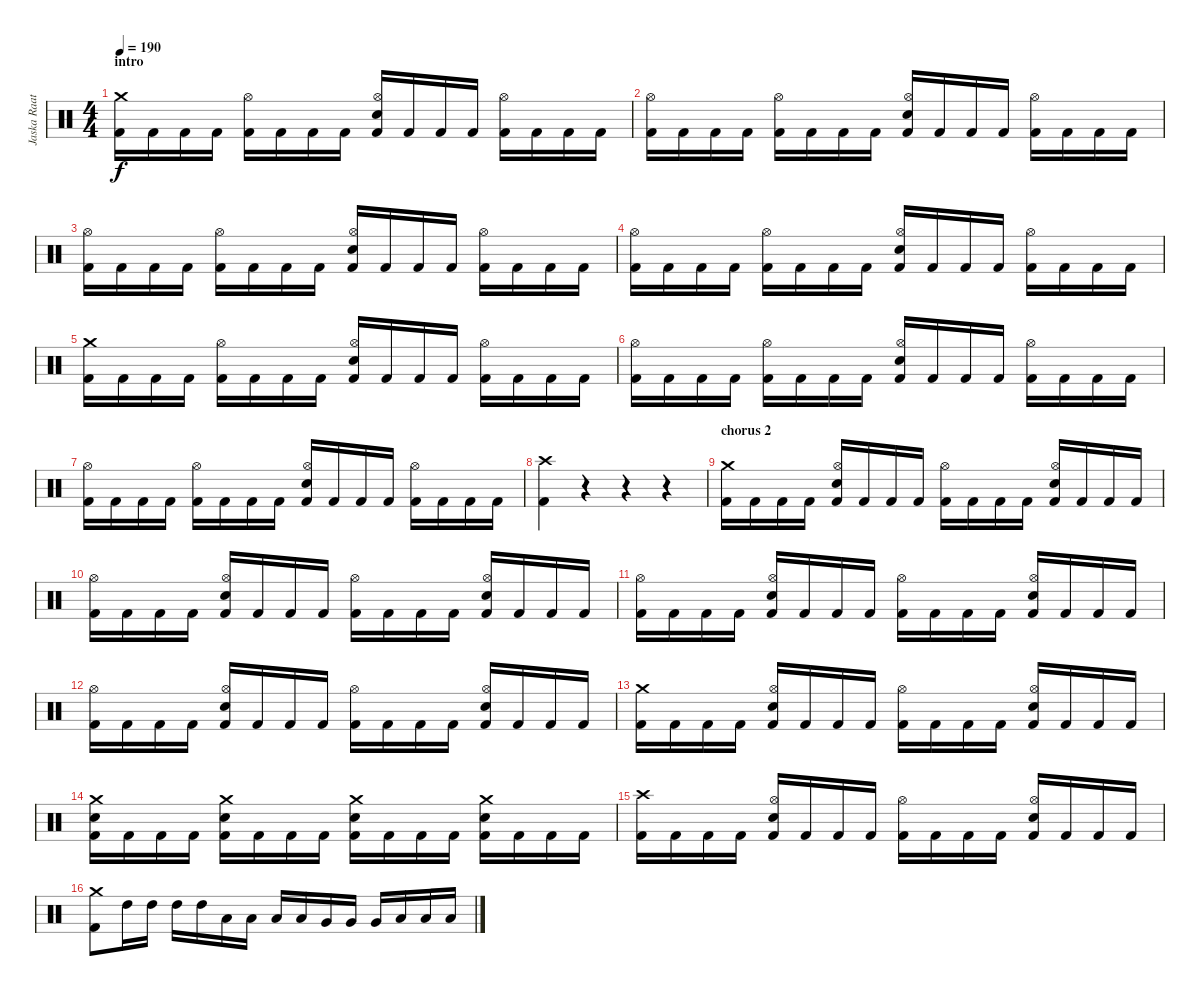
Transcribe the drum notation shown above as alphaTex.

\track ("Jaska Raatikainen" "Jaska Raat") {instrument percussion}
\staff {score}
\articulation defaults
\ts (4 4)
\section ("" "intro")
\tempo 190
\clef neutral
\ks c
("Crash medium (hit)" "Kick (hit) 2").16{dy f} "Kick (hit) 2".16 "Kick (hit) 2".16 "Kick (hit) 2".16 ("Hi-Hat (open)" "Kick (hit) 2").16 "Kick (hit) 2".16 "Kick (hit) 2".16 "Kick (hit) 2".16 ("Hi-Hat (open)" "Snare (hit) 2" "Kick (hit) 2").16 "Kick (hit) 2".16 "Kick (hit) 2".16 "Kick (hit) 2".16 ("Hi-Hat (open)" "Kick (hit) 2").16 "Kick (hit) 2".16 "Kick (hit) 2".16 "Kick (hit) 2".16 |
("Hi-Hat (open)" "Kick (hit) 2").16 "Kick (hit) 2".16 "Kick (hit) 2".16 "Kick (hit) 2".16 ("Hi-Hat (open)" "Kick (hit) 2").16 "Kick (hit) 2".16 "Kick (hit) 2".16 "Kick (hit) 2".16 ("Hi-Hat (open)" "Snare (hit) 2" "Kick (hit) 2").16 "Kick (hit) 2".16 "Kick (hit) 2".16 "Kick (hit) 2".16 ("Hi-Hat (open)" "Kick (hit) 2").16 "Kick (hit) 2".16 "Kick (hit) 2".16 "Kick (hit) 2".16 |
("Hi-Hat (open)" "Kick (hit) 2").16 "Kick (hit) 2".16 "Kick (hit) 2".16 "Kick (hit) 2".16 ("Hi-Hat (open)" "Kick (hit) 2").16 "Kick (hit) 2".16 "Kick (hit) 2".16 "Kick (hit) 2".16 ("Hi-Hat (open)" "Snare (hit) 2" "Kick (hit) 2").16 "Kick (hit) 2".16 "Kick (hit) 2".16 "Kick (hit) 2".16 ("Hi-Hat (open)" "Kick (hit) 2").16 "Kick (hit) 2".16 "Kick (hit) 2".16 "Kick (hit) 2".16 |
("Hi-Hat (open)" "Kick (hit) 2").16 "Kick (hit) 2".16 "Kick (hit) 2".16 "Kick (hit) 2".16 ("Hi-Hat (open)" "Kick (hit) 2").16 "Kick (hit) 2".16 "Kick (hit) 2".16 "Kick (hit) 2".16 ("Hi-Hat (open)" "Snare (hit) 2" "Kick (hit) 2").16 "Kick (hit) 2".16 "Kick (hit) 2".16 "Kick (hit) 2".16 ("Hi-Hat (open)" "Kick (hit) 2").16 "Kick (hit) 2".16 "Kick (hit) 2".16 "Kick (hit) 2".16 |
("Crash medium (hit)" "Kick (hit) 2").16 "Kick (hit) 2".16 "Kick (hit) 2".16 "Kick (hit) 2".16 ("Hi-Hat (open)" "Kick (hit) 2").16 "Kick (hit) 2".16 "Kick (hit) 2".16 "Kick (hit) 2".16 ("Hi-Hat (open)" "Snare (hit) 2" "Kick (hit) 2").16 "Kick (hit) 2".16 "Kick (hit) 2".16 "Kick (hit) 2".16 ("Hi-Hat (open)" "Kick (hit) 2").16 "Kick (hit) 2".16 "Kick (hit) 2".16 "Kick (hit) 2".16 |
("Hi-Hat (open)" "Kick (hit) 2").16 "Kick (hit) 2".16 "Kick (hit) 2".16 "Kick (hit) 2".16 ("Hi-Hat (open)" "Kick (hit) 2").16 "Kick (hit) 2".16 "Kick (hit) 2".16 "Kick (hit) 2".16 ("Hi-Hat (open)" "Snare (hit) 2" "Kick (hit) 2").16 "Kick (hit) 2".16 "Kick (hit) 2".16 "Kick (hit) 2".16 ("Hi-Hat (open)" "Kick (hit) 2").16 "Kick (hit) 2".16 "Kick (hit) 2".16 "Kick (hit) 2".16 |
("Hi-Hat (open)" "Kick (hit) 2").16 "Kick (hit) 2".16 "Kick (hit) 2".16 "Kick (hit) 2".16 ("Hi-Hat (open)" "Kick (hit) 2").16 "Kick (hit) 2".16 "Kick (hit) 2".16 "Kick (hit) 2".16 ("Hi-Hat (open)" "Snare (hit) 2" "Kick (hit) 2").16 "Kick (hit) 2".16 "Kick (hit) 2".16 "Kick (hit) 2".16 ("Hi-Hat (open)" "Kick (hit) 2").16 "Kick (hit) 2".16 "Kick (hit) 2".16 "Kick (hit) 2".16 |
("Crash high (hit)" "Kick (hit) 2").4 r.4 r.4 r.4 |
\section ("" "chorus 2")
("Crash medium (hit)" "Kick (hit) 2").16 "Kick (hit) 2".16 "Kick (hit) 2".16 "Kick (hit) 2".16 ("Hi-Hat (open)" "Snare (hit) 2" "Kick (hit) 2").16 "Kick (hit) 2".16 "Kick (hit) 2".16 "Kick (hit) 2".16 ("Hi-Hat (open)" "Kick (hit) 2").16 "Kick (hit) 2".16 "Kick (hit) 2".16 "Kick (hit) 2".16 ("Hi-Hat (open)" "Snare (hit) 2" "Kick (hit) 2").16 "Kick (hit) 2".16 "Kick (hit) 2".16 "Kick (hit) 2".16 |
("Hi-Hat (open)" "Kick (hit) 2").16 "Kick (hit) 2".16 "Kick (hit) 2".16 "Kick (hit) 2".16 ("Hi-Hat (open)" "Snare (hit) 2" "Kick (hit) 2").16 "Kick (hit) 2".16 "Kick (hit) 2".16 "Kick (hit) 2".16 ("Hi-Hat (open)" "Kick (hit) 2").16 "Kick (hit) 2".16 "Kick (hit) 2".16 "Kick (hit) 2".16 ("Hi-Hat (open)" "Snare (hit) 2" "Kick (hit) 2").16 "Kick (hit) 2".16 "Kick (hit) 2".16 "Kick (hit) 2".16 |
("Hi-Hat (open)" "Kick (hit) 2").16 "Kick (hit) 2".16 "Kick (hit) 2".16 "Kick (hit) 2".16 ("Hi-Hat (open)" "Snare (hit) 2" "Kick (hit) 2").16 "Kick (hit) 2".16 "Kick (hit) 2".16 "Kick (hit) 2".16 ("Hi-Hat (open)" "Kick (hit) 2").16 "Kick (hit) 2".16 "Kick (hit) 2".16 "Kick (hit) 2".16 ("Hi-Hat (open)" "Snare (hit) 2" "Kick (hit) 2").16 "Kick (hit) 2".16 "Kick (hit) 2".16 "Kick (hit) 2".16 |
("Hi-Hat (open)" "Kick (hit) 2").16 "Kick (hit) 2".16 "Kick (hit) 2".16 "Kick (hit) 2".16 ("Hi-Hat (open)" "Snare (hit) 2" "Kick (hit) 2").16 "Kick (hit) 2".16 "Kick (hit) 2".16 "Kick (hit) 2".16 ("Hi-Hat (open)" "Kick (hit) 2").16 "Kick (hit) 2".16 "Kick (hit) 2".16 "Kick (hit) 2".16 ("Hi-Hat (open)" "Snare (hit) 2" "Kick (hit) 2").16 "Kick (hit) 2".16 "Kick (hit) 2".16 "Kick (hit) 2".16 |
("Crash medium (hit)" "Kick (hit) 2").16 "Kick (hit) 2".16 "Kick (hit) 2".16 "Kick (hit) 2".16 ("Hi-Hat (open)" "Snare (hit) 2" "Kick (hit) 2").16 "Kick (hit) 2".16 "Kick (hit) 2".16 "Kick (hit) 2".16 ("Hi-Hat (open)" "Kick (hit) 2").16 "Kick (hit) 2".16 "Kick (hit) 2".16 "Kick (hit) 2".16 ("Hi-Hat (open)" "Snare (hit) 2" "Kick (hit) 2").16 "Kick (hit) 2".16 "Kick (hit) 2".16 "Kick (hit) 2".16 |
("Crash medium (hit)" "Snare (hit) 2" "Kick (hit) 2").16 "Kick (hit) 2".16 "Kick (hit) 2".16 "Kick (hit) 2".16 ("Crash medium (hit)" "Snare (hit) 2" "Kick (hit) 2").16 "Kick (hit) 2".16 "Kick (hit) 2".16 "Kick (hit) 2".16 ("Crash medium (hit)" "Snare (hit) 2" "Kick (hit) 2").16 "Kick (hit) 2".16 "Kick (hit) 2".16 "Kick (hit) 2".16 ("Crash medium (hit)" "Snare (hit) 2" "Kick (hit) 2").16 "Kick (hit) 2".16 "Kick (hit) 2".16 "Kick (hit) 2".16 |
("Crash high (hit)" "Kick (hit) 2").16 "Kick (hit) 2".16 "Kick (hit) 2".16 "Kick (hit) 2".16 ("Hi-Hat (open)" "Snare (hit) 2" "Kick (hit) 2").16 "Kick (hit) 2".16 "Kick (hit) 2".16 "Kick (hit) 2".16 ("Hi-Hat (open)" "Kick (hit) 2").16 "Kick (hit) 2".16 "Kick (hit) 2".16 "Kick (hit) 2".16 ("Hi-Hat (open)" "Snare (hit) 2" "Kick (hit) 2").16 "Kick (hit) 2".16 "Kick (hit) 2".16 "Kick (hit) 2".16 |
("Crash medium (hit)" "Kick (hit) 2").8 "High Tom (hit)".16 "High Tom (hit)".16 "High Tom (hit)".16 "High Tom (hit)".16 "Low Tom (hit)".16 "Low Tom (hit)".16 "Low Tom (hit)".16 "Low Tom (hit)".16 "Very Low Tom (hit)".16 "Very Low Tom (hit)".16 "Very Low Tom (hit)".16 "Low Floor Tom (hit)".16 "Low Floor Tom (hit)".16 "Low Floor Tom (hit)".16
